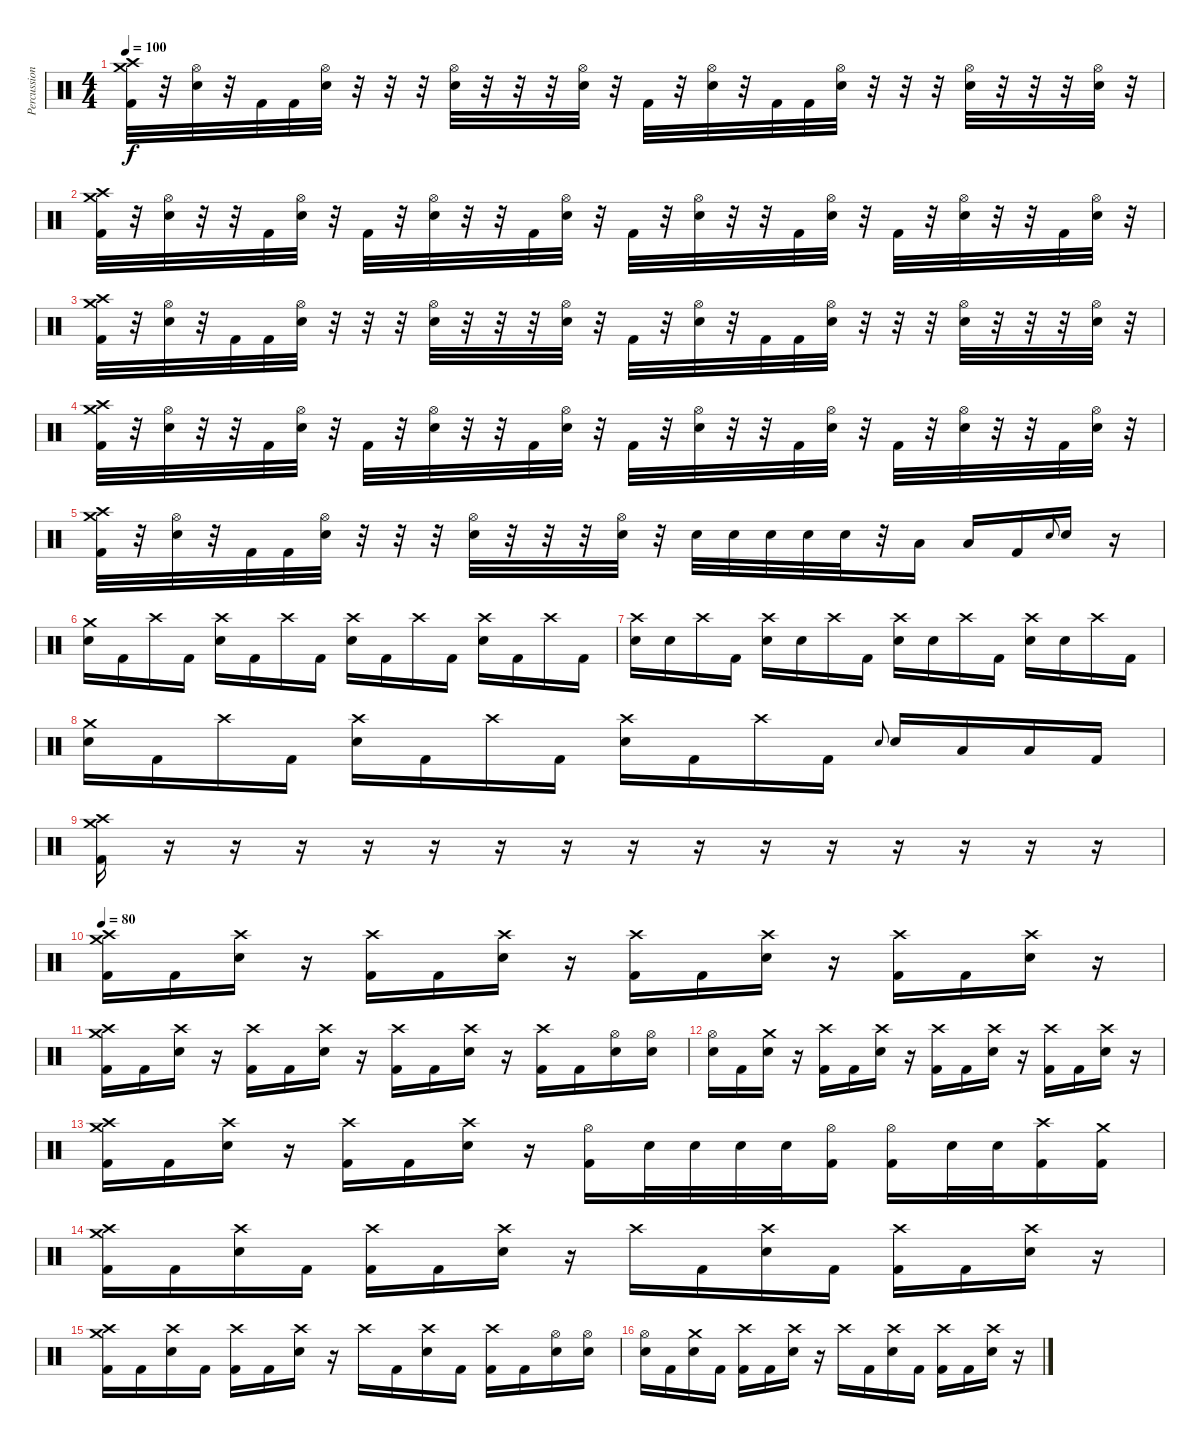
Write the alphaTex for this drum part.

\track ("Percussion" "Percussion") {instrument percussion}
\staff {score}
\articulation defaults
\ts (4 4)
\tempo 100
\clef neutral
\ks c
("Crash medium (hit)" "Crash high (hit)" "Kick (hit) 2").32{dy f} r.32 ("Hi-Hat (open)" "Electric Snare (hit)").32 r.32 "Kick (hit) 2".32 "Kick (hit) 2".32 ("Hi-Hat (open)" "Electric Snare (hit)").32 r.32 r.32 r.32 ("Hi-Hat (open)" "Electric Snare (hit)").32 r.32 r.32 r.32 ("Hi-Hat (open)" "Electric Snare (hit)").32 r.32 "Kick (hit) 2".32 r.32 ("Hi-Hat (open)" "Electric Snare (hit)").32 r.32 "Kick (hit) 2".32 "Kick (hit) 2".32 ("Hi-Hat (open)" "Electric Snare (hit)").32 r.32 r.32 r.32 ("Hi-Hat (open)" "Electric Snare (hit)").32 r.32 r.32 r.32 ("Hi-Hat (open)" "Electric Snare (hit)").32 r.32 |
("Crash medium (hit)" "Crash high (hit)" "Kick (hit) 2").32 r.32 ("Hi-Hat (open)" "Electric Snare (hit)").32 r.32 r.32 "Kick (hit) 2".32 ("Hi-Hat (open)" "Electric Snare (hit)").32 r.32 "Kick (hit) 2".32 r.32 ("Hi-Hat (open)" "Electric Snare (hit)").32 r.32 r.32 "Kick (hit) 2".32 ("Hi-Hat (open)" "Electric Snare (hit)").32 r.32 "Kick (hit) 2".32 r.32 ("Hi-Hat (open)" "Electric Snare (hit)").32 r.32 r.32 "Kick (hit) 2".32 ("Hi-Hat (open)" "Electric Snare (hit)").32 r.32 "Kick (hit) 2".32 r.32 ("Hi-Hat (open)" "Electric Snare (hit)").32 r.32 r.32 "Kick (hit) 2".32 ("Hi-Hat (open)" "Electric Snare (hit)").32 r.32 |
("Crash medium (hit)" "Crash high (hit)" "Kick (hit) 2").32 r.32 ("Hi-Hat (open)" "Electric Snare (hit)").32 r.32 "Kick (hit) 2".32 "Kick (hit) 2".32 ("Hi-Hat (open)" "Electric Snare (hit)").32 r.32 r.32 r.32 ("Hi-Hat (open)" "Electric Snare (hit)").32 r.32 r.32 r.32 ("Hi-Hat (open)" "Electric Snare (hit)").32 r.32 "Kick (hit) 2".32 r.32 ("Hi-Hat (open)" "Electric Snare (hit)").32 r.32 "Kick (hit) 2".32 "Kick (hit) 2".32 ("Hi-Hat (open)" "Electric Snare (hit)").32 r.32 r.32 r.32 ("Hi-Hat (open)" "Electric Snare (hit)").32 r.32 r.32 r.32 ("Hi-Hat (open)" "Electric Snare (hit)").32 r.32 |
("Crash medium (hit)" "Crash high (hit)" "Kick (hit) 2").32 r.32 ("Hi-Hat (open)" "Electric Snare (hit)").32 r.32 r.32 "Kick (hit) 2".32 ("Hi-Hat (open)" "Electric Snare (hit)").32 r.32 "Kick (hit) 2".32 r.32 ("Hi-Hat (open)" "Electric Snare (hit)").32 r.32 r.32 "Kick (hit) 2".32 ("Hi-Hat (open)" "Electric Snare (hit)").32 r.32 "Kick (hit) 2".32 r.32 ("Hi-Hat (open)" "Electric Snare (hit)").32 r.32 r.32 "Kick (hit) 2".32 ("Hi-Hat (open)" "Electric Snare (hit)").32 r.32 "Kick (hit) 2".32 r.32 ("Hi-Hat (open)" "Electric Snare (hit)").32 r.32 r.32 "Kick (hit) 2".32 ("Hi-Hat (open)" "Electric Snare (hit)").32 r.32 |
("Crash medium (hit)" "Crash high (hit)" "Kick (hit) 2").32 r.32 ("Hi-Hat (open)" "Electric Snare (hit)").32 r.32 "Kick (hit) 2".32 "Kick (hit) 2".32 ("Hi-Hat (open)" "Electric Snare (hit)").32 r.32 r.32 r.32 ("Hi-Hat (open)" "Electric Snare (hit)").32 r.32 r.32 r.32 ("Hi-Hat (open)" "Electric Snare (hit)").32 r.32 "Electric Snare (hit)".32 "Electric Snare (hit)".32 "Electric Snare (hit)".32 "Electric Snare (hit)".32 "Electric Snare (hit)".32 r.32 "Low Tom (hit)".16 "Low Floor Tom (hit)".16 "Kick (hit) 2".16 "Electric Snare (hit)".8{gr onbeat} "Electric Snare (hit)".16 r.16 |
("Crash medium (hit)" "Electric Snare (hit)").16 "Kick (hit) 2".16 "Crash high (hit)".16 "Kick (hit) 2".16 ("Crash high (hit)" "Electric Snare (hit)").16 "Kick (hit) 2".16 "Crash high (hit)".16 "Kick (hit) 2".16 ("Crash high (hit)" "Electric Snare (hit)").16 "Kick (hit) 2".16 "Crash high (hit)".16 "Kick (hit) 2".16 ("Crash high (hit)" "Electric Snare (hit)").16 "Kick (hit) 2".16 "Crash high (hit)".16 "Kick (hit) 2".16 |
("Crash high (hit)" "Electric Snare (hit)").16 "Electric Snare (hit)".16 "Crash high (hit)".16 "Kick (hit) 2".16 ("Crash high (hit)" "Electric Snare (hit)").16 "Electric Snare (hit)".16 "Crash high (hit)".16 "Kick (hit) 2".16 ("Crash high (hit)" "Electric Snare (hit)").16 "Electric Snare (hit)".16 "Crash high (hit)".16 "Kick (hit) 2".16 ("Crash high (hit)" "Electric Snare (hit)").16 "Electric Snare (hit)".16 "Crash high (hit)".16 "Kick (hit) 2".16 |
("Crash medium (hit)" "Electric Snare (hit)").16 "Kick (hit) 2".16 "Crash high (hit)".16 "Kick (hit) 2".16 ("Crash high (hit)" "Electric Snare (hit)").16 "Kick (hit) 2".16 "Crash high (hit)".16 "Kick (hit) 2".16 ("Crash high (hit)" "Electric Snare (hit)").16 "Kick (hit) 2".16 "Crash high (hit)".16 "Kick (hit) 2".16 "Electric Snare (hit)".8{gr onbeat} "Electric Snare (hit)".16 "Low Tom (hit)".16 "Low Floor Tom (hit)".16 "Kick (hit) 2".16 |
("Crash medium (hit)" "Crash high (hit)" "Kick (hit) 2").16 r.16{volume 0} r.16 r.16 r.16 r.16 r.16 r.16 r.16 r.16 r.16 r.16 r.16 r.16 r.16 r.16 |
\tempo 80
("Crash medium (hit)" "Crash high (hit)" "Kick (hit) 2").16{volume 13} "Kick (hit) 2".16 ("Crash high (hit)" "Electric Snare (hit)").16 r.16 ("Crash high (hit)" "Kick (hit) 2").16 "Kick (hit) 2".16 ("Crash high (hit)" "Electric Snare (hit)").16 r.16 ("Crash high (hit)" "Kick (hit) 2").16 "Kick (hit) 2".16 ("Crash high (hit)" "Electric Snare (hit)").16 r.16 ("Crash high (hit)" "Kick (hit) 2").16 "Kick (hit) 2".16 ("Crash high (hit)" "Electric Snare (hit)").16 r.16 |
("Crash medium (hit)" "Crash high (hit)" "Kick (hit) 2").16 "Kick (hit) 2".16 ("Crash high (hit)" "Electric Snare (hit)").16 r.16 ("Crash high (hit)" "Kick (hit) 2").16 "Kick (hit) 2".16 ("Crash high (hit)" "Electric Snare (hit)").16 r.16 ("Crash high (hit)" "Kick (hit) 2").16 "Kick (hit) 2".16 ("Crash high (hit)" "Electric Snare (hit)").16 r.16 ("Crash high (hit)" "Kick (hit) 2").16 "Kick (hit) 2".16 ("Hi-Hat (open)" "Electric Snare (hit)").16 ("Hi-Hat (open)" "Electric Snare (hit)").16 |
("Hi-Hat (open)" "Electric Snare (hit)").16 "Kick (hit) 2".16 ("Crash medium (hit)" "Electric Snare (hit)").16 r.16 ("Crash high (hit)" "Kick (hit) 2").16 "Kick (hit) 2".16 ("Crash high (hit)" "Electric Snare (hit)").16 r.16 ("Crash high (hit)" "Kick (hit) 2").16 "Kick (hit) 2".16 ("Crash high (hit)" "Electric Snare (hit)").16 r.16 ("Crash high (hit)" "Kick (hit) 2").16 "Kick (hit) 2".16 ("Crash high (hit)" "Electric Snare (hit)").16 r.16 |
("Crash medium (hit)" "Crash high (hit)" "Kick (hit) 2").16 "Kick (hit) 2".16 ("Crash high (hit)" "Electric Snare (hit)").16 r.16 ("Crash high (hit)" "Kick (hit) 2").16 "Kick (hit) 2".16 ("Crash high (hit)" "Electric Snare (hit)").16 r.16 ("Hi-Hat (open)" "Kick (hit) 2").16 "Electric Snare (hit)".32 "Electric Snare (hit)".32 "Electric Snare (hit)".32 "Electric Snare (hit)".32 ("Hi-Hat (open)" "Kick (hit) 2").16 ("Hi-Hat (open)" "Kick (hit) 2").16 "Electric Snare (hit)".32 "Electric Snare (hit)".32 ("Crash high (hit)" "Kick (hit) 2").16 ("Crash medium (hit)" "Kick (hit) 2").16 |
("Crash medium (hit)" "Crash high (hit)" "Kick (hit) 2").16 "Kick (hit) 2".16 ("Crash high (hit)" "Electric Snare (hit)").16 "Kick (hit) 2".16 ("Crash high (hit)" "Kick (hit) 2").16 "Kick (hit) 2".16 ("Crash high (hit)" "Electric Snare (hit)").16 r.16 "Crash high (hit)".16 "Kick (hit) 2".16 ("Crash high (hit)" "Electric Snare (hit)").16 "Kick (hit) 2".16 ("Crash high (hit)" "Kick (hit) 2").16 "Kick (hit) 2".16 ("Crash high (hit)" "Electric Snare (hit)").16 r.16 |
("Crash medium (hit)" "Crash high (hit)" "Kick (hit) 2").16 "Kick (hit) 2".16 ("Crash high (hit)" "Electric Snare (hit)").16 "Kick (hit) 2".16 ("Crash high (hit)" "Kick (hit) 2").16 "Kick (hit) 2".16 ("Crash high (hit)" "Electric Snare (hit)").16 r.16 "Crash high (hit)".16 "Kick (hit) 2".16 ("Crash high (hit)" "Electric Snare (hit)").16 "Kick (hit) 2".16 ("Crash high (hit)" "Kick (hit) 2").16 "Kick (hit) 2".16 ("Hi-Hat (open)" "Electric Snare (hit)").16 ("Hi-Hat (open)" "Electric Snare (hit)").16 |
("Hi-Hat (open)" "Electric Snare (hit)").16 "Kick (hit) 2".16 ("Crash medium (hit)" "Electric Snare (hit)").16 "Kick (hit) 2".16 ("Crash high (hit)" "Kick (hit) 2").16 "Kick (hit) 2".16 ("Crash high (hit)" "Electric Snare (hit)").16 r.16 "Crash high (hit)".16 "Kick (hit) 2".16 ("Crash high (hit)" "Electric Snare (hit)").16 "Kick (hit) 2".16 ("Crash high (hit)" "Kick (hit) 2").16 "Kick (hit) 2".16 ("Crash high (hit)" "Electric Snare (hit)").16 r.16
